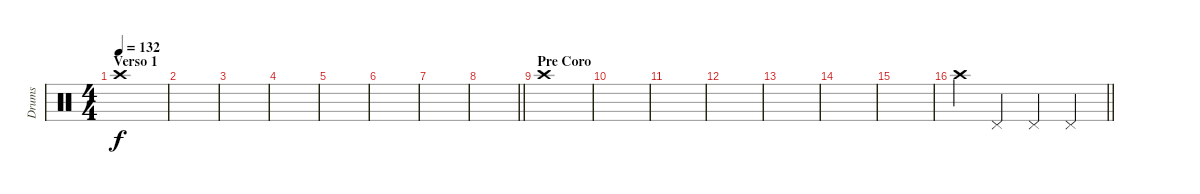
\track ("Drums" "Drums") {instrument percussion}
\staff {score}
\articulation defaults
\ts (4 4)
\section ("" "Verso 1")
\tempo 132
\clef neutral
\ks c "Crash high (hit)".1{dy f}
|
|
|
|
|
|
|
\barLineRight lightlight
|
\section ("" "Pre Coro")
"Crash high (hit)".1 |
|
|
|
|
|
|
\barLineRight lightlight "Crash high (hit)".4 "Pedal Hi-Hat (hit)".4 "Pedal Hi-Hat (hit)".4 "Pedal Hi-Hat (hit)".4
